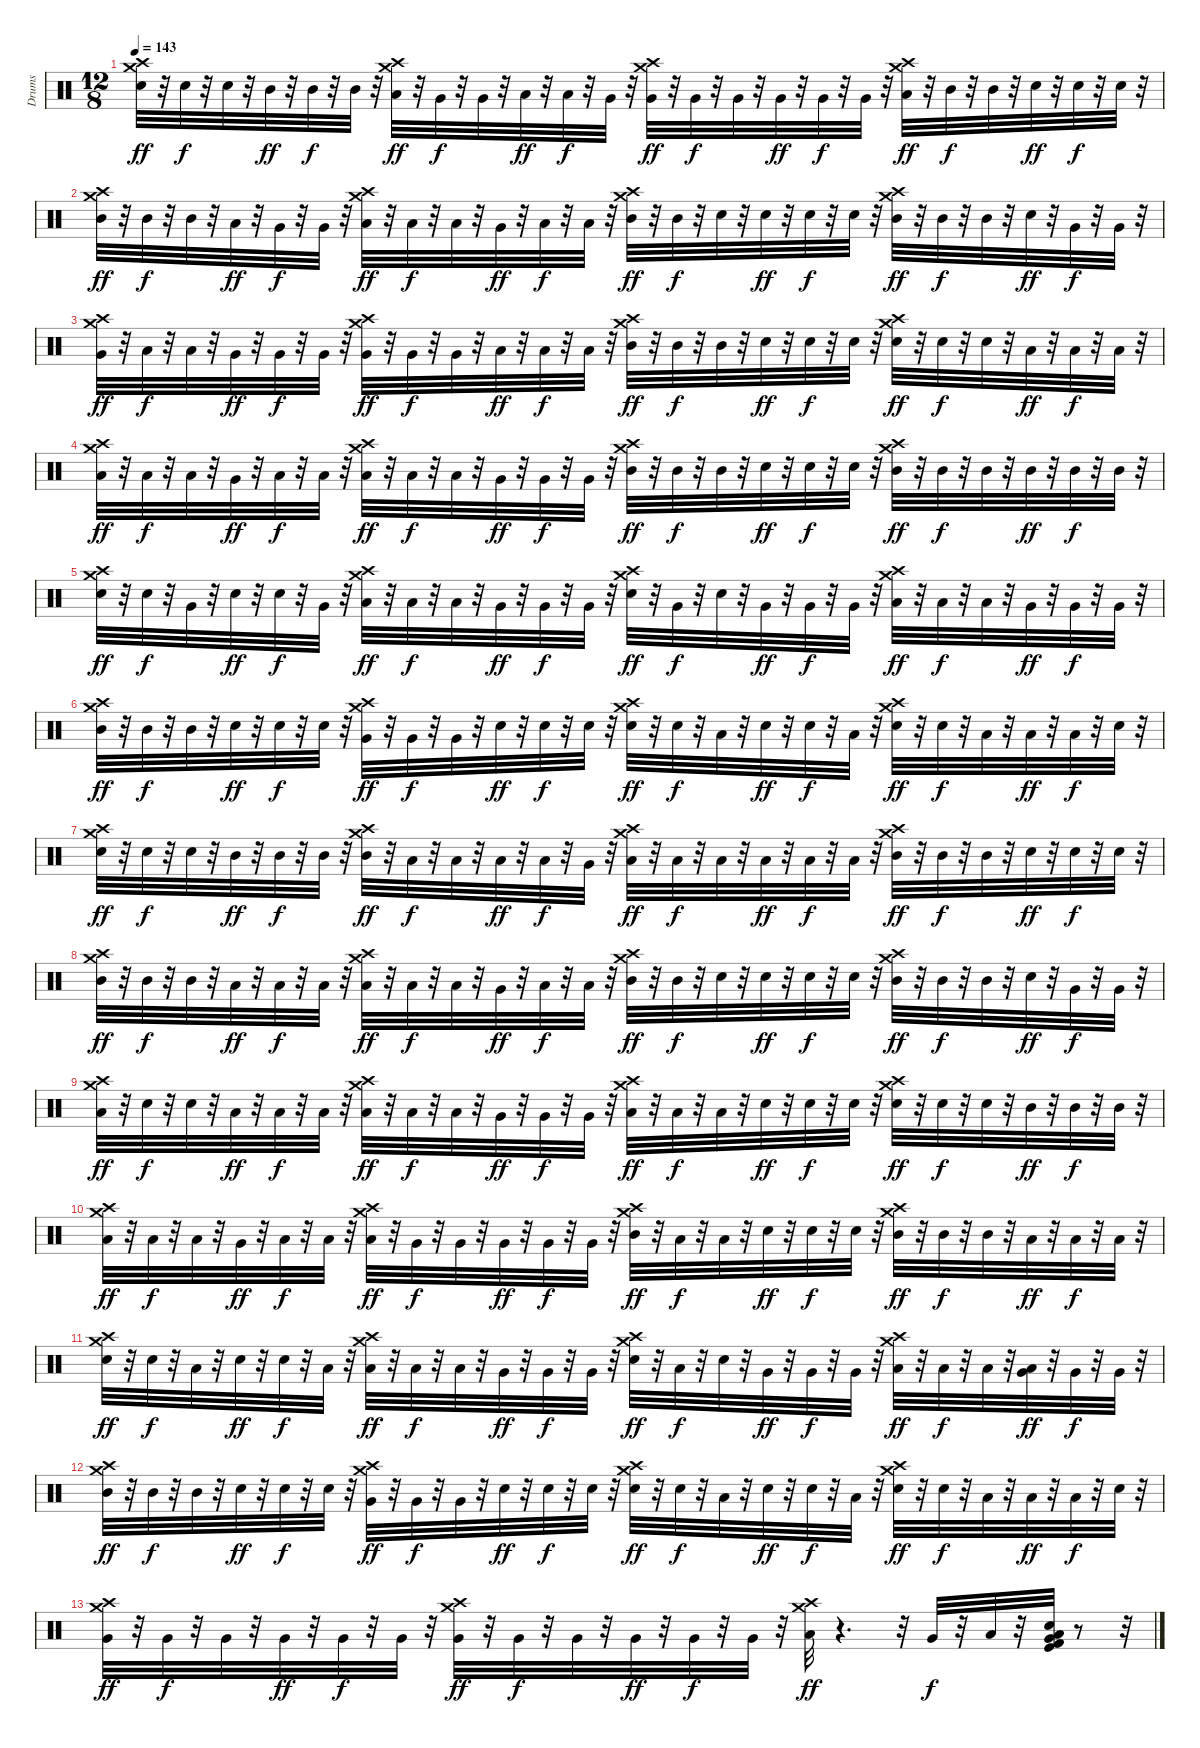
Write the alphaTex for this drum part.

\track ("Drums" "Drums") {instrument percussion}
\staff {score}
\articulation defaults
\ts (12 8)
\tempo 143
\clef neutral
\ks c
("Electric Snare (hit)" "Crash medium (hit)" "Crash high (hit)").32{dy ff} r.32 "Snare (hit) 2".32{dy f} r.32 "Snare (hit) 2".32 r.32 "Mid Tom (hit)".32{dy ff} r.32 "Mid Tom (hit)".32{dy f} r.32 "Mid Tom (hit)".32 r.32 ("Low Tom (hit)" "Crash high (hit)" "Crash medium (hit)").32{dy ff} r.32 "Very Low Tom (hit)".32{dy f} r.32 "Very Low Tom (hit)".32 r.32 "Low Floor Tom (hit)".32{dy ff} r.32 "Low Floor Tom (hit)".32{dy f} r.32 "Very Low Tom (hit)".32 r.32 ("Very Low Tom (hit)" "Crash medium (hit)" "Crash high (hit)").32{dy ff} r.32 "Very Low Tom (hit)".32{dy f} r.32 "Very Low Tom (hit)".32 r.32 "Very Low Tom (hit)".32{dy ff} r.32 "Very Low Tom (hit)".32{dy f} r.32 "Very Low Tom (hit)".32 r.32 ("Low Tom (hit)" "Crash high (hit)" "Crash medium (hit)").32{dy ff} r.32 "Mid Tom (hit)".32{dy f} r.32 "Mid Tom (hit)".32 r.32 "Snare (hit) 2".32{dy ff} r.32 "Snare (hit) 2".32{dy f} r.32 "Snare (hit) 2".32 r.32 |
("Mid Tom (hit)" "Crash medium (hit)" "Crash high (hit)").32{dy ff} r.32 "Mid Tom (hit)".32{dy f} r.32 "Mid Tom (hit)".32 r.32 "Low Tom (hit)".32{dy ff} r.32 "Very Low Tom (hit)".32{dy f} r.32 "Very Low Tom (hit)".32 r.32 ("Low Floor Tom (hit)" "Crash high (hit)" "Crash medium (hit)").32{dy ff} r.32 "Low Floor Tom (hit)".32{dy f} r.32 "Low Floor Tom (hit)".32 r.32 "Very Low Tom (hit)".32{dy ff} r.32 "Low Floor Tom (hit)".32{dy f} r.32 "Low Floor Tom (hit)".32 r.32 ("Mid Tom (hit)" "Crash medium (hit)" "Crash high (hit)").32{dy ff} r.32 "Mid Tom (hit)".32{dy f} r.32 "Snare (hit) 2".32 r.32 "Snare (hit) 2".32{dy ff} r.32 "Snare (hit) 2".32{dy f} r.32 "Snare (hit) 2".32 r.32 ("Mid Tom (hit)" "Crash high (hit)" "Crash medium (hit)").32{dy ff} r.32 "Mid Tom (hit)".32{dy f} r.32 "Mid Tom (hit)".32 r.32 "Electric Snare (hit)".32{dy ff} r.32 "Very Low Tom (hit)".32{dy f} r.32 "Very Low Tom (hit)".32 r.32 |
("Very Low Tom (hit)" "Crash medium (hit)" "Crash high (hit)").32{dy ff} r.32 "Low Floor Tom (hit)".32{dy f} r.32 "Low Floor Tom (hit)".32 r.32 "Very Low Tom (hit)".32{dy ff} r.32 "Very Low Tom (hit)".32{dy f} r.32 "Very Low Tom (hit)".32 r.32 ("Very Low Tom (hit)" "Crash high (hit)" "Crash medium (hit)").32{dy ff} r.32 "Very Low Tom (hit)".32{dy f} r.32 "Very Low Tom (hit)".32 r.32 "Low Tom (hit)".32{dy ff} r.32 "Low Tom (hit)".32{dy f} r.32 "Low Tom (hit)".32 r.32 ("Mid Tom (hit)" "Crash medium (hit)" "Crash high (hit)").32{dy ff} r.32 "Mid Tom (hit)".32{dy f} r.32 "Mid Tom (hit)".32 r.32 "Snare (hit) 2".32{dy ff} r.32 "Snare (hit) 2".32{dy f} r.32 "Snare (hit) 2".32 r.32 ("Snare (hit) 2" "Crash high (hit)" "Crash medium (hit)").32{dy ff} r.32 "Snare (hit) 2".32{dy f} r.32 "Snare (hit) 2".32 r.32 "Low Tom (hit)".32{dy ff} r.32 "Low Tom (hit)".32{dy f} r.32 "Low Tom (hit)".32 r.32 |
("Low Floor Tom (hit)" "Crash medium (hit)" "Crash high (hit)").32{dy ff} r.32 "Low Floor Tom (hit)".32{dy f} r.32 "Low Floor Tom (hit)".32 r.32 "Very Low Tom (hit)".32{dy ff} r.32 "Low Floor Tom (hit)".32{dy f} r.32 "Low Floor Tom (hit)".32 r.32 ("Low Tom (hit)" "Crash high (hit)" "Crash medium (hit)").32{dy ff} r.32 "Low Tom (hit)".32{dy f} r.32 "Low Tom (hit)".32 r.32 "Very Low Tom (hit)".32{dy ff} r.32 "Very Low Tom (hit)".32{dy f} r.32 "Very Low Tom (hit)".32 r.32 ("Mid Tom (hit)" "Crash medium (hit)" "Crash high (hit)").32{dy ff} r.32 "Mid Tom (hit)".32{dy f} r.32 "Mid Tom (hit)".32 r.32 "Snare (hit) 2".32{dy ff} r.32 "Snare (hit) 2".32{dy f} r.32 "Snare (hit) 2".32 r.32 ("Mid Tom (hit)" "Crash high (hit)" "Crash medium (hit)").32{dy ff} r.32 "Mid Tom (hit)".32{dy f} r.32 "Mid Tom (hit)".32 r.32 "Mid Tom (hit)".32{dy ff} r.32 "Mid Tom (hit)".32{dy f} r.32 "Mid Tom (hit)".32 r.32 |
("Snare (hit) 2" "Crash medium (hit)" "Crash high (hit)").32{dy ff} r.32 "Snare (hit) 2".32{dy f} r.32 "Very Low Tom (hit)".32 r.32 "Snare (hit) 2".32{dy ff} r.32 "Snare (hit) 2".32{dy f} r.32 "Very Low Tom (hit)".32 r.32 ("Low Floor Tom (hit)" "Crash high (hit)" "Crash medium (hit)").32{dy ff} r.32 "Low Floor Tom (hit)".32{dy f} r.32 "Low Floor Tom (hit)".32 r.32 "Very Low Tom (hit)".32{dy ff} r.32 "Very Low Tom (hit)".32{dy f} r.32 "Very Low Tom (hit)".32 r.32 ("Snare (hit) 2" "Crash medium (hit)" "Crash high (hit)").32{dy ff} r.32 "Very Low Tom (hit)".32{dy f} r.32 "Snare (hit) 2".32 r.32 "Very Low Tom (hit)".32{dy ff} r.32 "Very Low Tom (hit)".32{dy f} r.32 "Very Low Tom (hit)".32 r.32 ("Low Floor Tom (hit)" "Crash high (hit)" "Crash medium (hit)").32{dy ff} r.32 "Low Floor Tom (hit)".32{dy f} r.32 "Low Floor Tom (hit)".32 r.32 "Very Low Tom (hit)".32{dy ff} r.32 "Very Low Tom (hit)".32{dy f} r.32 "Very Low Tom (hit)".32 r.32 |
("Mid Tom (hit)" "Crash medium (hit)" "Crash high (hit)").32{dy ff} r.32 "Mid Tom (hit)".32{dy f} r.32 "Mid Tom (hit)".32 r.32 "Electric Snare (hit)".32{dy ff} r.32 "Snare (hit) 2".32{dy f} r.32 "Snare (hit) 2".32 r.32 ("Very Low Tom (hit)" "Crash high (hit)" "Crash medium (hit)").32{dy ff} r.32 "Very Low Tom (hit)".32{dy f} r.32 "Very Low Tom (hit)".32 r.32 "Snare (hit) 2".32{dy ff} r.32 "Snare (hit) 2".32{dy f} r.32 "Snare (hit) 2".32 r.32 ("Electric Snare (hit)" "Crash medium (hit)" "Crash high (hit)").32{dy ff} r.32 "Electric Snare (hit)".32{dy f} r.32 "Low Floor Tom (hit)".32 r.32 "Electric Snare (hit)".32{dy ff} r.32 "Electric Snare (hit)".32{dy f} r.32 "Low Floor Tom (hit)".32 r.32 ("Electric Snare (hit)" "Crash high (hit)" "Crash medium (hit)").32{dy ff} r.32 "Electric Snare (hit)".32{dy f} r.32 "Low Floor Tom (hit)".32 r.32 "Low Floor Tom (hit)".32{dy ff} r.32 "Low Floor Tom (hit)".32{dy f} r.32 "Electric Snare (hit)".32 r.32 |
("Snare (hit) 2" "Crash medium (hit)" "Crash high (hit)").32{dy ff} r.32 "Snare (hit) 2".32{dy f} r.32 "Snare (hit) 2".32 r.32 "Mid Tom (hit)".32{dy ff} r.32 "Mid Tom (hit)".32{dy f} r.32 "Mid Tom (hit)".32 r.32 ("Mid Tom (hit)" "Crash high (hit)" "Crash medium (hit)").32{dy ff} r.32 "Low Tom (hit)".32{dy f} r.32 "Low Tom (hit)".32 r.32 "Low Floor Tom (hit)".32{dy ff} r.32 "Low Floor Tom (hit)".32{dy f} r.32 "Very Low Tom (hit)".32 r.32 ("Low Tom (hit)" "Crash medium (hit)" "Crash high (hit)").32{dy ff} r.32 "Low Tom (hit)".32{dy f} r.32 "Low Tom (hit)".32 r.32 "Low Tom (hit)".32{dy ff} r.32 "Low Tom (hit)".32{dy f} r.32 "Low Tom (hit)".32 r.32 ("Mid Tom (hit)" "Crash high (hit)" "Crash medium (hit)").32{dy ff} r.32 "Mid Tom (hit)".32{dy f} r.32 "Mid Tom (hit)".32 r.32 "Snare (hit) 2".32{dy ff} r.32 "Snare (hit) 2".32{dy f} r.32 "Snare (hit) 2".32 r.32 |
("Mid Tom (hit)" "Crash medium (hit)" "Crash high (hit)").32{dy ff} r.32 "Mid Tom (hit)".32{dy f} r.32 "Mid Tom (hit)".32 r.32 "Low Tom (hit)".32{dy ff} r.32 "Low Tom (hit)".32{dy f} r.32 "Low Tom (hit)".32 r.32 ("Low Floor Tom (hit)" "Crash high (hit)" "Crash medium (hit)").32{dy ff} r.32 "Low Floor Tom (hit)".32{dy f} r.32 "Low Floor Tom (hit)".32 r.32 "Very Low Tom (hit)".32{dy ff} r.32 "Low Floor Tom (hit)".32{dy f} r.32 "Low Floor Tom (hit)".32 r.32 ("Mid Tom (hit)" "Crash medium (hit)" "Crash high (hit)").32{dy ff} r.32 "Mid Tom (hit)".32{dy f} r.32 "Electric Snare (hit)".32 r.32 "Snare (hit) 2".32{dy ff} r.32 "Snare (hit) 2".32{dy f} r.32 "Snare (hit) 2".32 r.32 ("Mid Tom (hit)" "Crash high (hit)" "Crash medium (hit)").32{dy ff} r.32 "Mid Tom (hit)".32{dy f} r.32 "Mid Tom (hit)".32 r.32 "Snare (hit) 2".32{dy ff} r.32 "Very Low Tom (hit)".32{dy f} r.32 "Very Low Tom (hit)".32 r.32 |
("Low Floor Tom (hit)" "Crash medium (hit)" "Crash high (hit)").32{dy ff} r.32 "Electric Snare (hit)".32{dy f} r.32 "Electric Snare (hit)".32 r.32 "Low Floor Tom (hit)".32{dy ff} r.32 "Low Floor Tom (hit)".32{dy f} r.32 "Low Floor Tom (hit)".32 r.32 ("Low Floor Tom (hit)" "Crash high (hit)" "Crash medium (hit)").32{dy ff} r.32 "Low Floor Tom (hit)".32{dy f} r.32 "Low Floor Tom (hit)".32 r.32 "Very Low Tom (hit)".32{dy ff} r.32 "Very Low Tom (hit)".32{dy f} r.32 "Very Low Tom (hit)".32 r.32 ("Low Tom (hit)" "Crash medium (hit)" "Crash high (hit)").32{dy ff} r.32 "Low Tom (hit)".32{dy f} r.32 "Low Tom (hit)".32 r.32 "Electric Snare (hit)".32{dy ff} r.32 "Electric Snare (hit)".32{dy f} r.32 "Electric Snare (hit)".32 r.32 ("Electric Snare (hit)" "Crash high (hit)" "Crash medium (hit)").32{dy ff} r.32 "Electric Snare (hit)".32{dy f} r.32 "Electric Snare (hit)".32 r.32 "Mid Tom (hit)".32{dy ff} r.32 "Mid Tom (hit)".32{dy f} r.32 "Mid Tom (hit)".32 r.32 |
("Low Floor Tom (hit)" "Crash medium (hit)" "Crash high (hit)").32{dy ff} r.32 "Low Floor Tom (hit)".32{dy f} r.32 "Low Floor Tom (hit)".32 r.32 "Very Low Tom (hit)".32{dy ff} r.32 "Low Floor Tom (hit)".32{dy f} r.32 "Low Floor Tom (hit)".32 r.32 ("Low Tom (hit)" "Crash high (hit)" "Crash medium (hit)").32{dy ff} r.32 "Very Low Tom (hit)".32{dy f} r.32 "Very Low Tom (hit)".32 r.32 "Very Low Tom (hit)".32{dy ff} r.32 "Very Low Tom (hit)".32{dy f} r.32 "Very Low Tom (hit)".32 r.32 ("Mid Tom (hit)" "Crash medium (hit)" "Crash high (hit)").32{dy ff} r.32 "Low Tom (hit)".32{dy f} r.32 "Low Tom (hit)".32 r.32 "Electric Snare (hit)".32{dy ff} r.32 "Electric Snare (hit)".32{dy f} r.32 "Electric Snare (hit)".32 r.32 ("Mid Tom (hit)" "Crash high (hit)" "Crash medium (hit)").32{dy ff} r.32 "Mid Tom (hit)".32{dy f} r.32 "Mid Tom (hit)".32 r.32 "Low Tom (hit)".32{dy ff} r.32 "Low Tom (hit)".32{dy f} r.32 "Low Tom (hit)".32 r.32 |
("Electric Snare (hit)" "Crash medium (hit)" "Crash high (hit)").32{dy ff} r.32 "Electric Snare (hit)".32{dy f} r.32 "Low Tom (hit)".32 r.32 "Electric Snare (hit)".32{dy ff} r.32 "Electric Snare (hit)".32{dy f} r.32 "Low Tom (hit)".32 r.32 ("Low Floor Tom (hit)" "Crash high (hit)" "Crash medium (hit)").32{dy ff} r.32 "Low Floor Tom (hit)".32{dy f} r.32 "Low Floor Tom (hit)".32 r.32 "Very Low Tom (hit)".32{dy ff} r.32 "Very Low Tom (hit)".32{dy f} r.32 "Very Low Tom (hit)".32 r.32 ("Electric Snare (hit)" "Crash medium (hit)" "Crash high (hit)").32{dy ff} r.32 "Low Tom (hit)".32{dy f} r.32 "Snare (hit) 2".32 r.32 "Very Low Tom (hit)".32{dy ff} r.32 "Very Low Tom (hit)".32{dy f} r.32 "Very Low Tom (hit)".32 r.32 ("Low Floor Tom (hit)" "Crash high (hit)" "Crash medium (hit)").32{dy ff} r.32 "Low Floor Tom (hit)".32{dy f} r.32 "Low Floor Tom (hit)".32 r.32 ("Low Tom (hit)" "Very Low Tom (hit)").32{dy ff} r.32 "Very Low Tom (hit)".32{dy f} r.32 "Very Low Tom (hit)".32 r.32 |
("Mid Tom (hit)" "Crash medium (hit)" "Crash high (hit)").32{dy ff} r.32 "Mid Tom (hit)".32{dy f} r.32 "Mid Tom (hit)".32 r.32 "Snare (hit) 2".32{dy ff} r.32 "Snare (hit) 2".32{dy f} r.32 "Snare (hit) 2".32 r.32 ("Very Low Tom (hit)" "Crash high (hit)" "Crash medium (hit)").32{dy ff} r.32 "Very Low Tom (hit)".32{dy f} r.32 "Very Low Tom (hit)".32 r.32 "Electric Snare (hit)".32{dy ff} r.32 "Electric Snare (hit)".32{dy f} r.32 "Electric Snare (hit)".32 r.32 ("Snare (hit) 2" "Crash medium (hit)" "Crash high (hit)").32{dy ff} r.32 "Snare (hit) 2".32{dy f} r.32 "Low Floor Tom (hit)".32 r.32 "Electric Snare (hit)".32{dy ff} r.32 "Electric Snare (hit)".32{dy f} r.32 "Low Floor Tom (hit)".32 r.32 ("Electric Snare (hit)" "Crash high (hit)" "Crash medium (hit)").32{dy ff} r.32 "Electric Snare (hit)".32{dy f} r.32 "Low Floor Tom (hit)".32 r.32 "Low Floor Tom (hit)".32{dy ff} r.32 "Low Floor Tom (hit)".32{dy f} r.32 "Snare (hit) 2".32 r.32 |
("Very Low Tom (hit)" "Crash medium (hit)" "Crash high (hit)").32{dy ff} r.32 "Very Low Tom (hit)".32{dy f} r.32 "Very Low Tom (hit)".32 r.32 "Very Low Tom (hit)".32{dy ff} r.32 "Very Low Tom (hit)".32{dy f} r.32 "Very Low Tom (hit)".32 r.32 ("Very Low Tom (hit)" "Crash high (hit)" "Crash medium (hit)").32{dy ff} r.32 "Very Low Tom (hit)".32{dy f} r.32 "Very Low Tom (hit)".32 r.32 "Very Low Tom (hit)".32{dy ff} r.32 "Very Low Tom (hit)".32{dy f} r.32 "Very Low Tom (hit)".32 r.32 ("Low Floor Tom (hit)" "Crash high (hit)" "Crash medium (hit)").32{dy ff} r.4{d} r.32 "Very Low Tom (hit)".32{dy f} r.32 "Low Floor Tom (hit)".32 r.32 ("Electric Snare (hit)" "Kick (hit) 2" "Low Floor Tom (hit)" "Very Low Tom (hit)" "Kick (hit)").32 r.8 r.32
